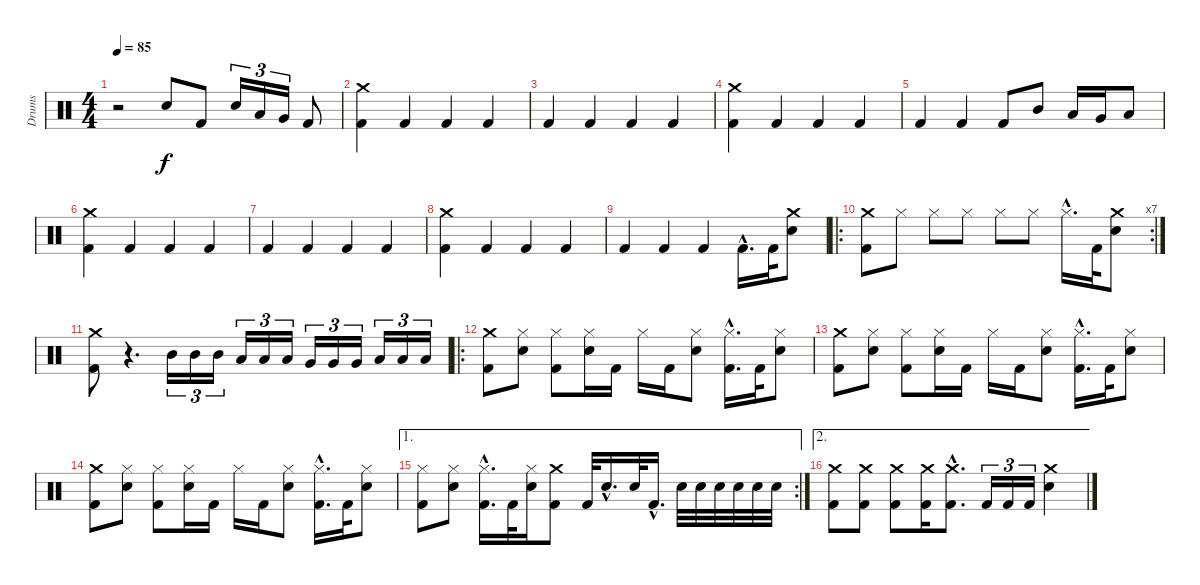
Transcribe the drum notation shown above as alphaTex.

\track ("Drums" "Drums") {instrument percussion}
\staff {score}
\articulation defaults
\ts (4 4)
\tempo 85
\clef neutral
\ks c
r.2{dy f} "Snare (hit) 2".8 "Kick (hit) 2".8 "Snare (hit) 2".16{tu (3 2)} "Low Tom (hit)".16{tu (3 2)} "Very Low Tom (hit)".16{tu (3 2)} "Kick (hit) 2".8 |
("Crash medium (hit)" "Kick (hit) 2").4 "Kick (hit) 2".4 "Kick (hit) 2".4 "Kick (hit) 2".4 |
"Kick (hit) 2".4 "Kick (hit) 2".4 "Kick (hit) 2".4 "Kick (hit) 2".4 |
("Crash medium (hit)" "Kick (hit) 2").4 "Kick (hit) 2".4 "Kick (hit) 2".4 "Kick (hit) 2".4 |
"Kick (hit) 2".4 "Kick (hit) 2".4 "Kick (hit) 2".8 "Mid Tom (hit)".8 "Low Tom (hit)".16 "Very Low Tom (hit)".16 "Low Floor Tom (hit)".8 |
("Crash medium (hit)" "Kick (hit) 2").4 "Kick (hit) 2".4 "Kick (hit) 2".4 "Kick (hit) 2".4 |
"Kick (hit) 2".4 "Kick (hit) 2".4 "Kick (hit) 2".4 "Kick (hit) 2".4 |
("Crash medium (hit)" "Kick (hit) 2").4 "Kick (hit) 2".4 "Kick (hit) 2".4 "Kick (hit) 2".4 |
"Kick (hit) 2".4 "Kick (hit) 2".4 "Kick (hit) 2".4 "Kick (hit) 2"{hac}.16{d} "Kick (hit) 2".32 ("Crash medium (hit)" "Snare (hit) 2").8 |
\ro
\rc 7
("Crash medium (hit)" "Kick (hit) 2").8 "Hi-Hat (closed)".8 "Hi-Hat (closed)".8 "Hi-Hat (closed)".8 "Hi-Hat (closed)".8 "Hi-Hat (closed)".8 "Hi-Hat (closed)"{hac}.16{d} "Kick (hit) 2".32 ("Crash medium (hit)" "Snare (hit) 2").8 |
("Crash medium (hit)" "Kick (hit) 2").8 r.4{d} "Mid Tom (hit)".16{tu (3 2)} "Mid Tom (hit)".16{tu (3 2)} "Mid Tom (hit)".16{tu (3 2)} "Low Tom (hit)".16{tu (3 2)} "Low Tom (hit)".16{tu (3 2)} "Low Tom (hit)".16{tu (3 2)} "Very Low Tom (hit)".16{tu (3 2)} "Very Low Tom (hit)".16{tu (3 2)} "Very Low Tom (hit)".16{tu (3 2)} "Low Floor Tom (hit)".16{tu (3 2)} "Low Floor Tom (hit)".16{tu (3 2)} "Low Floor Tom (hit)".16{tu (3 2)} |
\ro
("Crash medium (hit)" "Kick (hit) 2").8 ("Hi-Hat (closed)" "Snare (hit) 2").8 ("Hi-Hat (closed)" "Kick (hit) 2").8 ("Hi-Hat (closed)" "Snare (hit) 2").16 "Kick (hit) 2".16 "Hi-Hat (closed)".16 "Kick (hit) 2".16 ("Hi-Hat (closed)" "Snare (hit) 2").8 ("Hi-Hat (closed)"{hac} "Kick (hit) 2"{hac}).16{d} "Kick (hit) 2".32 ("Hi-Hat (closed)" "Snare (hit) 2").8 |
("Crash medium (hit)" "Kick (hit) 2").8 ("Hi-Hat (closed)" "Snare (hit) 2").8 ("Hi-Hat (closed)" "Kick (hit) 2").8 ("Hi-Hat (closed)" "Snare (hit) 2").16 "Kick (hit) 2".16 "Hi-Hat (closed)".16 "Kick (hit) 2".16 ("Hi-Hat (closed)" "Snare (hit) 2").8 ("Hi-Hat (closed)"{hac} "Kick (hit) 2"{hac}).16{d} "Kick (hit) 2".32 ("Hi-Hat (closed)" "Snare (hit) 2").8 |
("Crash medium (hit)" "Kick (hit) 2").8 ("Hi-Hat (closed)" "Snare (hit) 2").8 ("Hi-Hat (closed)" "Kick (hit) 2").8 ("Hi-Hat (closed)" "Snare (hit) 2").16 "Kick (hit) 2".16 "Hi-Hat (closed)".16 "Kick (hit) 2".16 ("Hi-Hat (closed)" "Snare (hit) 2").8 ("Hi-Hat (closed)"{hac} "Kick (hit) 2"{hac}).16{d} "Kick (hit) 2".32 ("Hi-Hat (closed)" "Snare (hit) 2").8 |
\ae 1
\rc 2
("Hi-Hat (closed)" "Kick (hit) 2").8 ("Hi-Hat (closed)" "Snare (hit) 2").8 ("Hi-Hat (closed)"{hac} "Kick (hit) 2"{hac}).16{d} "Kick (hit) 2".32 ("Hi-Hat (closed)" "Snare (hit) 2").16 ("Crash medium (hit)" "Kick (hit) 2").8 "Kick (hit) 2".32 "Snare (hit) 2"{hac}.16{d} "Snare (hit) 2".32 "Kick (hit) 2"{hac}.16{d} "Snare (hit) 2".32 "Snare (hit) 2".32 "Snare (hit) 2".32 "Snare (hit) 2".32 "Snare (hit) 2".32 "Snare (hit) 2".32 |
\ae 2
("Crash medium (hit)" "Kick (hit) 2").8 ("Crash medium (hit)" "Kick (hit) 2").8 ("Crash medium (hit)" "Kick (hit) 2").8 ("Crash medium (hit)" "Kick (hit) 2").16 ("Crash medium (hit)"{hac} "Kick (hit) 2"{hac}).8{d} "Kick (hit) 2".16{tu (3 2)} "Kick (hit) 2".16{tu (3 2)} "Kick (hit) 2".16{tu (3 2)} ("Crash medium (hit)" "Snare (hit) 2").4
